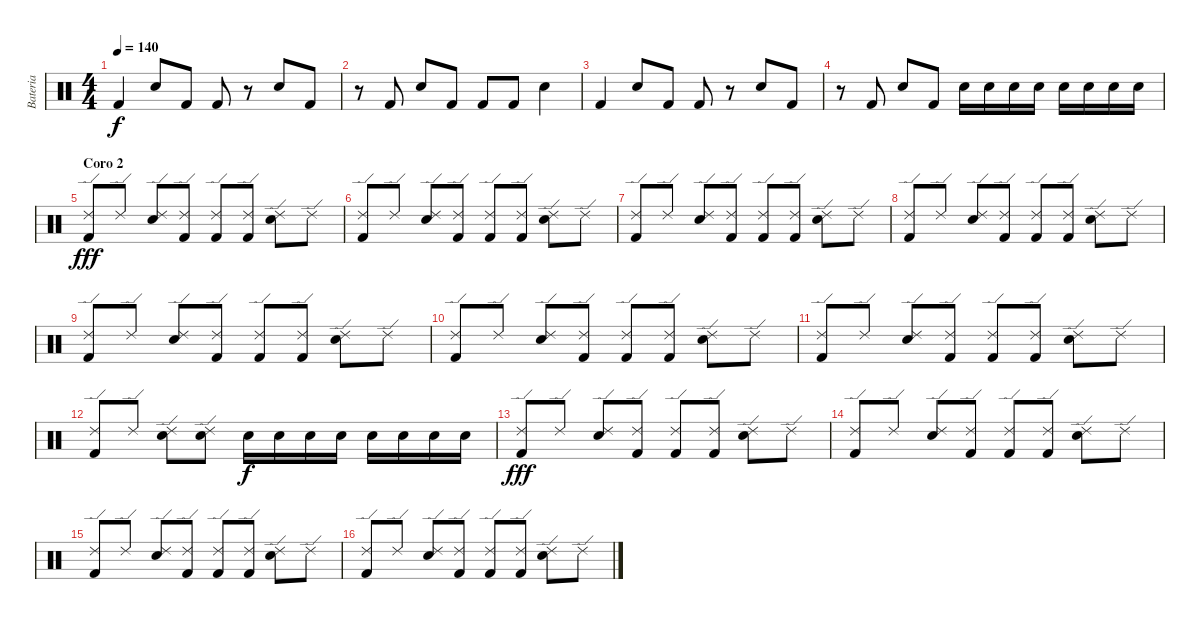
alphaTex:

\track ("Bateria" "Bateria") {instrument percussion}
\staff {score}
\articulation defaults
\ts (4 4)
\tempo 140
\clef neutral
\ks c "Kick (hit) 2".4{dy f} "Snare (hit) 2".8 "Kick (hit) 2".8 "Kick (hit) 2".8
r.8 "Snare (hit) 2".8 "Kick (hit) 2".8 |
r.8 "Kick (hit) 2".8 "Snare (hit) 2".8 "Kick (hit) 2".8 "Kick (hit) 2".8 "Kick (hit) 2".8 "Snare (hit) 2".4 |
"Kick (hit) 2".4 "Snare (hit) 2".8 "Kick (hit) 2".8 "Kick (hit) 2".8 r.8 "Snare (hit) 2".8 "Kick (hit) 2".8 |
r.8 "Kick (hit) 2".8 "Snare (hit) 2".8 "Kick (hit) 2".8 "Snare (hit) 2".16 "Snare (hit) 2".16 "Snare (hit) 2".16 "Snare (hit) 2".16 "Snare (hit) 2".16 "Snare (hit) 2".16 "Snare (hit) 2".16 "Snare (hit) 2".16 |
\section ("" "Coro 2")
("Ride (edge) 2" "Kick (hit) 2").8{dy fff} "Ride (edge) 2".8 ("Ride (edge) 2" "Snare (hit) 2").8 ("Ride (edge) 2" "Kick (hit) 2").8 ("Ride (edge) 2" "Kick (hit) 2").8 ("Ride (edge) 2" "Kick (hit) 2").8 ("Ride (edge) 2" "Snare (hit) 2").8 "Ride (edge) 2".8 |
("Ride (edge) 2" "Kick (hit) 2").8 "Ride (edge) 2".8 ("Ride (edge) 2" "Snare (hit) 2").8 ("Ride (edge) 2" "Kick (hit) 2").8 ("Ride (edge) 2" "Kick (hit) 2").8 ("Ride (edge) 2" "Kick (hit) 2").8 ("Ride (edge) 2" "Snare (hit) 2").8 "Ride (edge) 2".8 |
("Ride (edge) 2" "Kick (hit) 2").8 "Ride (edge) 2".8 ("Ride (edge) 2" "Snare (hit) 2").8 ("Ride (edge) 2" "Kick (hit) 2").8 ("Ride (edge) 2" "Kick (hit) 2").8 ("Ride (edge) 2" "Kick (hit) 2").8 ("Ride (edge) 2" "Snare (hit) 2").8 "Ride (edge) 2".8 |
("Ride (edge) 2" "Kick (hit) 2").8 "Ride (edge) 2".8 ("Ride (edge) 2" "Snare (hit) 2").8 ("Ride (edge) 2" "Kick (hit) 2").8 ("Ride (edge) 2" "Kick (hit) 2").8 ("Ride (edge) 2" "Kick (hit) 2").8 ("Ride (edge) 2" "Snare (hit) 2").8 "Ride (edge) 2".8 |
("Ride (edge) 2" "Kick (hit) 2").8 "Ride (edge) 2".8 ("Ride (edge) 2" "Snare (hit) 2").8 ("Ride (edge) 2" "Kick (hit) 2").8 ("Ride (edge) 2" "Kick (hit) 2").8 ("Ride (edge) 2" "Kick (hit) 2").8 ("Ride (edge) 2" "Snare (hit) 2").8 "Ride (edge) 2".8 |
("Ride (edge) 2" "Kick (hit) 2").8 "Ride (edge) 2".8 ("Ride (edge) 2" "Snare (hit) 2").8 ("Ride (edge) 2" "Kick (hit) 2").8 ("Ride (edge) 2" "Kick (hit) 2").8 ("Ride (edge) 2" "Kick (hit) 2").8 ("Ride (edge) 2" "Snare (hit) 2").8 "Ride (edge) 2".8 |
("Ride (edge) 2" "Kick (hit) 2").8 "Ride (edge) 2".8 ("Ride (edge) 2" "Snare (hit) 2").8 ("Ride (edge) 2" "Kick (hit) 2").8 ("Ride (edge) 2" "Kick (hit) 2").8 ("Ride (edge) 2" "Kick (hit) 2").8 ("Ride (edge) 2" "Snare (hit) 2").8 "Ride (edge) 2".8 |
("Ride (edge) 2" "Kick (hit) 2").8 "Ride (edge) 2".8 ("Ride (edge) 2" "Snare (hit) 2").8 ("Ride (edge) 2" "Snare (hit) 2").8 "Snare (hit) 2".16{dy f} "Snare (hit) 2".16 "Snare (hit) 2".16 "Snare (hit) 2".16 "Snare (hit) 2".16 "Snare (hit) 2".16 "Snare (hit) 2".16 "Snare (hit) 2".16 |
("Ride (edge) 2" "Kick (hit) 2").8{dy fff} "Ride (edge) 2".8 ("Ride (edge) 2" "Snare (hit) 2").8 ("Ride (edge) 2" "Kick (hit) 2").8 ("Ride (edge) 2" "Kick (hit) 2").8 ("Ride (edge) 2" "Kick (hit) 2").8 ("Ride (edge) 2" "Snare (hit) 2").8 "Ride (edge) 2".8 |
("Ride (edge) 2" "Kick (hit) 2").8 "Ride (edge) 2".8 ("Ride (edge) 2" "Snare (hit) 2").8 ("Ride (edge) 2" "Kick (hit) 2").8 ("Ride (edge) 2" "Kick (hit) 2").8 ("Ride (edge) 2" "Kick (hit) 2").8 ("Ride (edge) 2" "Snare (hit) 2").8 "Ride (edge) 2".8 |
("Ride (edge) 2" "Kick (hit) 2").8 "Ride (edge) 2".8 ("Ride (edge) 2" "Snare (hit) 2").8 ("Ride (edge) 2" "Kick (hit) 2").8 ("Ride (edge) 2" "Kick (hit) 2").8 ("Ride (edge) 2" "Kick (hit) 2").8 ("Ride (edge) 2" "Snare (hit) 2").8 "Ride (edge) 2".8 |
("Ride (edge) 2" "Kick (hit) 2").8 "Ride (edge) 2".8 ("Ride (edge) 2" "Snare (hit) 2").8 ("Ride (edge) 2" "Kick (hit) 2").8 ("Ride (edge) 2" "Kick (hit) 2").8 ("Ride (edge) 2" "Kick (hit) 2").8 ("Ride (edge) 2" "Snare (hit) 2").8 "Ride (edge) 2".8
